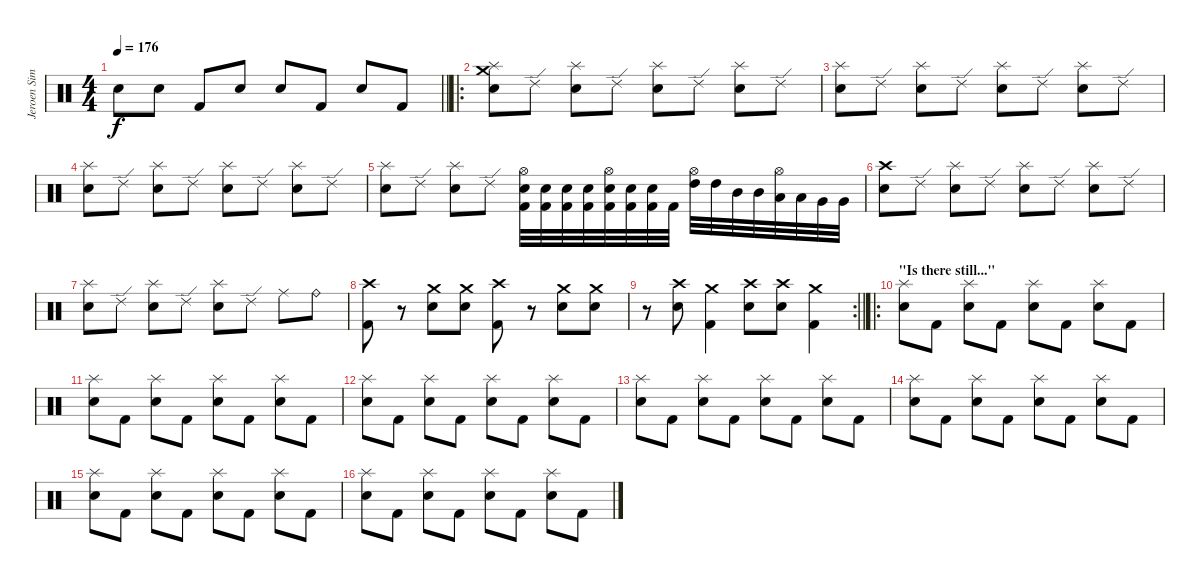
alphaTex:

\track ("Jeroen Simons" "Jeroen Sim") {instrument percussion}
\staff {score}
\articulation defaults
\ts (4 4)
\tempo 176
\clef neutral
\barLineRight lightlight
\ks c "Electric Snare (hit)".8{dy f} "Electric Snare (hit)".8 "Kick (hit) 2".8 "Electric Snare (hit)".8 "Electric Snare (hit)".8 "Kick (hit) 2".8 "Electric Snare (hit)".8 "Kick (hit) 2".8
|
\ro
\section ("" "")
("Crash medium (hit)" "Splash (hit)" "Electric Snare (hit)").8 "Ride (edge) 2".8 ("Splash (hit)" "Electric Snare (hit)").8 "Ride (edge) 2".8 ("Splash (hit)" "Electric Snare (hit)").8 "Ride (edge) 2".8 ("Splash (hit)" "Electric Snare (hit)").8 "Ride (edge) 2".8 |
("Splash (hit)" "Electric Snare (hit)").8 "Ride (edge) 2".8 ("Splash (hit)" "Electric Snare (hit)").8 "Ride (edge) 2".8 ("Splash (hit)" "Electric Snare (hit)").8 "Ride (edge) 2".8 ("Splash (hit)" "Electric Snare (hit)").8 "Ride (edge) 2".8 |
("Splash (hit)" "Electric Snare (hit)").8 "Ride (edge) 2".8 ("Splash (hit)" "Electric Snare (hit)").8 "Ride (edge) 2".8 ("Splash (hit)" "Electric Snare (hit)").8 "Ride (edge) 2".8 ("Splash (hit)" "Electric Snare (hit)").8 "Ride (edge) 2".8 |
("Splash (hit)" "Electric Snare (hit)").8 "Ride (edge) 2".8 ("Splash (hit)" "Electric Snare (hit)").8 "Ride (edge) 2".8 ("Hi-Hat (open)" "Electric Snare (hit)" "Kick (hit) 2").32 ("Electric Snare (hit)" "Kick (hit) 2").32 ("Electric Snare (hit)" "Kick (hit) 2").32 ("Electric Snare (hit)" "Kick (hit) 2").32 ("Hi-Hat (open)" "Electric Snare (hit)" "Kick (hit) 2").32 ("Electric Snare (hit)" "Kick (hit) 2").32 ("Electric Snare (hit)" "Kick (hit) 2").32 "Kick (hit) 2".32 ("Hi-Hat (open)" "High Tom (hit)").32 "High Tom (hit)".32 "Mid Tom (hit)".32 "Mid Tom (hit)".32 ("Hi-Hat (open)" "Low Tom (hit)").32 "Low Tom (hit)".32 "Very Low Tom (hit)".32 "Very Low Tom (hit)".32 |
("Crash high (hit)" "Electric Snare (hit)").8 "Ride (edge) 2".8 ("Splash (hit)" "Electric Snare (hit)").8 "Ride (edge) 2".8 ("Splash (hit)" "Electric Snare (hit)").8 "Ride (edge) 2".8 ("Splash (hit)" "Electric Snare (hit)").8 "Ride (edge) 2".8 |
("Splash (hit)" "Electric Snare (hit)").8 "Ride (edge) 2".8 ("Splash (hit)" "Electric Snare (hit)").8 "Ride (edge) 2".8 ("Splash (hit)" "Electric Snare (hit)").8 "Ride (edge) 2".8 "Ride (middle)".8 "Ride (bell)".8 |
("Crash high (hit)" "Kick (hit) 2").8 r.8 ("Crash medium (hit)" "Electric Snare (hit)").8 ("Crash medium (hit)" "Electric Snare (hit)").8 ("Crash high (hit)" "Kick (hit) 2").8 r.8 ("Crash medium (hit)" "Electric Snare (hit)").8 ("Crash medium (hit)" "Electric Snare (hit)").8 |
\rc 2
\barLineRight lightlight
r.8 ("Crash high (hit)" "Electric Snare (hit)").8 ("Crash medium (hit)" "Kick (hit) 2").4 ("Crash high (hit)" "Electric Snare (hit)").8 ("Crash high (hit)" "Electric Snare (hit)").8 ("Crash medium (hit)" "Kick (hit) 2").4 |
\ro
\section ("" "\"Is there still...\"")
("Splash (hit)" "Electric Snare (hit)").8 "Kick (hit) 2".8 ("Splash (hit)" "Electric Snare (hit)").8 "Kick (hit) 2".8 ("Splash (hit)" "Electric Snare (hit)").8 "Kick (hit) 2".8 ("Splash (hit)" "Electric Snare (hit)").8 "Kick (hit) 2".8 |
("Splash (hit)" "Electric Snare (hit)").8 "Kick (hit) 2".8 ("Splash (hit)" "Electric Snare (hit)").8 "Kick (hit) 2".8 ("Splash (hit)" "Electric Snare (hit)").8 "Kick (hit) 2".8 ("Splash (hit)" "Electric Snare (hit)").8 "Kick (hit) 2".8 |
("Splash (hit)" "Electric Snare (hit)").8 "Kick (hit) 2".8 ("Splash (hit)" "Electric Snare (hit)").8 "Kick (hit) 2".8 ("Splash (hit)" "Electric Snare (hit)").8 "Kick (hit) 2".8 ("Splash (hit)" "Electric Snare (hit)").8 "Kick (hit) 2".8 |
("Splash (hit)" "Electric Snare (hit)").8 "Kick (hit) 2".8 ("Splash (hit)" "Electric Snare (hit)").8 "Kick (hit) 2".8 ("Splash (hit)" "Electric Snare (hit)").8 "Kick (hit) 2".8 ("Splash (hit)" "Electric Snare (hit)").8 "Kick (hit) 2".8 |
("Splash (hit)" "Electric Snare (hit)").8 "Kick (hit) 2".8 ("Splash (hit)" "Electric Snare (hit)").8 "Kick (hit) 2".8 ("Splash (hit)" "Electric Snare (hit)").8 "Kick (hit) 2".8 ("Splash (hit)" "Electric Snare (hit)").8 "Kick (hit) 2".8 |
("Splash (hit)" "Electric Snare (hit)").8 "Kick (hit) 2".8 ("Splash (hit)" "Electric Snare (hit)").8 "Kick (hit) 2".8 ("Splash (hit)" "Electric Snare (hit)").8 "Kick (hit) 2".8 ("Splash (hit)" "Electric Snare (hit)").8 "Kick (hit) 2".8 |
("Splash (hit)" "Electric Snare (hit)").8 "Kick (hit) 2".8 ("Splash (hit)" "Electric Snare (hit)").8 "Kick (hit) 2".8 ("Splash (hit)" "Electric Snare (hit)").8 "Kick (hit) 2".8 ("Splash (hit)" "Electric Snare (hit)").8 "Kick (hit) 2".8
